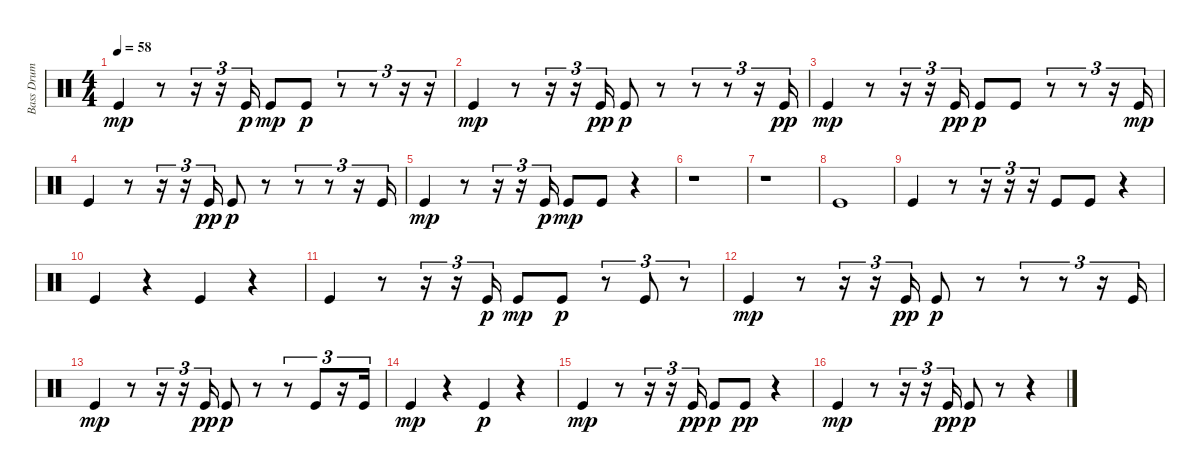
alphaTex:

\track ("Bass Drum" "Bass Drum") {instrument percussion}
\staff {score}
\articulation defaults
\ts (4 4)
\tempo 58
\clef neutral
\ks c "Kick (hit)".4{dy mp}
r.8 r.16{tu (3 2)} r.16{tu (3 2)} "Kick (hit)".16{tu (3 2) dy p} "Kick (hit)".8{dy mp} "Kick (hit)".8{dy p} r.8{tu (3 2)} r.8{tu (3 2)} r.16{tu (3 2)} r.16{tu (3 2)} |
"Kick (hit)".4{dy mp} r.8 r.16{tu (3 2)} r.16{tu (3 2)} "Kick (hit)".16{tu (3 2) dy pp} "Kick (hit)".8{dy p} r.8 r.8{tu (3 2)} r.8{tu (3 2)} r.16{tu (3 2)} "Kick (hit)".16{tu (3 2) dy pp} |
"Kick (hit)".4{dy mp} r.8 r.16{tu (3 2)} r.16{tu (3 2)} "Kick (hit)".16{tu (3 2) dy pp} "Kick (hit)".8{dy p} "Kick (hit)".8 r.8{tu (3 2)} r.8{tu (3 2)} r.16{tu (3 2)} "Kick (hit)".16{tu (3 2) dy mp} |
"Kick (hit)".4 r.8 r.16{tu (3 2)} r.16{tu (3 2)} "Kick (hit)".16{tu (3 2) dy pp} "Kick (hit)".8{dy p} r.8 r.8{tu (3 2)} r.8{tu (3 2)} r.16{tu (3 2)} "Kick (hit)".16{tu (3 2)} |
"Kick (hit)".4{dy mp} r.8 r.16{tu (3 2)} r.16{tu (3 2)} "Kick (hit)".16{tu (3 2) dy p} "Kick (hit)".8{dy mp} "Kick (hit)".8 r.4 |
r.1 |
r.1 |
"Kick (hit)".1 |
"Kick (hit)".4 r.8 r.16{tu (3 2)} r.16{tu (3 2)} r.16{tu (3 2)} "Kick (hit)".8 "Kick (hit)".8 r.4 |
"Kick (hit)".4 r.4 "Kick (hit)".4 r.4 |
"Kick (hit)".4 r.8 r.16{tu (3 2)} r.16{tu (3 2)} "Kick (hit)".16{tu (3 2) dy p} "Kick (hit)".8{dy mp} "Kick (hit)".8{dy p} r.8{tu (3 2)} "Kick (hit)".8{tu (3 2)} r.8{tu (3 2)} |
"Kick (hit)".4{dy mp} r.8 r.16{tu (3 2)} r.16{tu (3 2)} "Kick (hit)".16{tu (3 2) dy pp} "Kick (hit)".8{dy p} r.8 r.8{tu (3 2)} r.8{tu (3 2)} r.16{tu (3 2)} "Kick (hit)".16{tu (3 2)} |
"Kick (hit)".4{dy mp} r.8 r.16{tu (3 2)} r.16{tu (3 2)} "Kick (hit)".16{tu (3 2) dy pp} "Kick (hit)".8{dy p} r.8 r.8{tu (3 2)} "Kick (hit)".8{tu (3 2)} r.16{tu (3 2)} "Kick (hit)".16{tu (3 2)} |
"Kick (hit)".4{dy mp} r.4 "Kick (hit)".4{dy p} r.4 |
"Kick (hit)".4{dy mp} r.8 r.16{tu (3 2)} r.16{tu (3 2)} "Kick (hit)".16{tu (3 2) dy pp} "Kick (hit)".8{dy p} "Kick (hit)".8{dy pp} r.4 |
"Kick (hit)".4{dy mp} r.8 r.16{tu (3 2)} r.16{tu (3 2)} "Kick (hit)".16{tu (3 2) dy pp} "Kick (hit)".8{dy p} r.8 r.4
